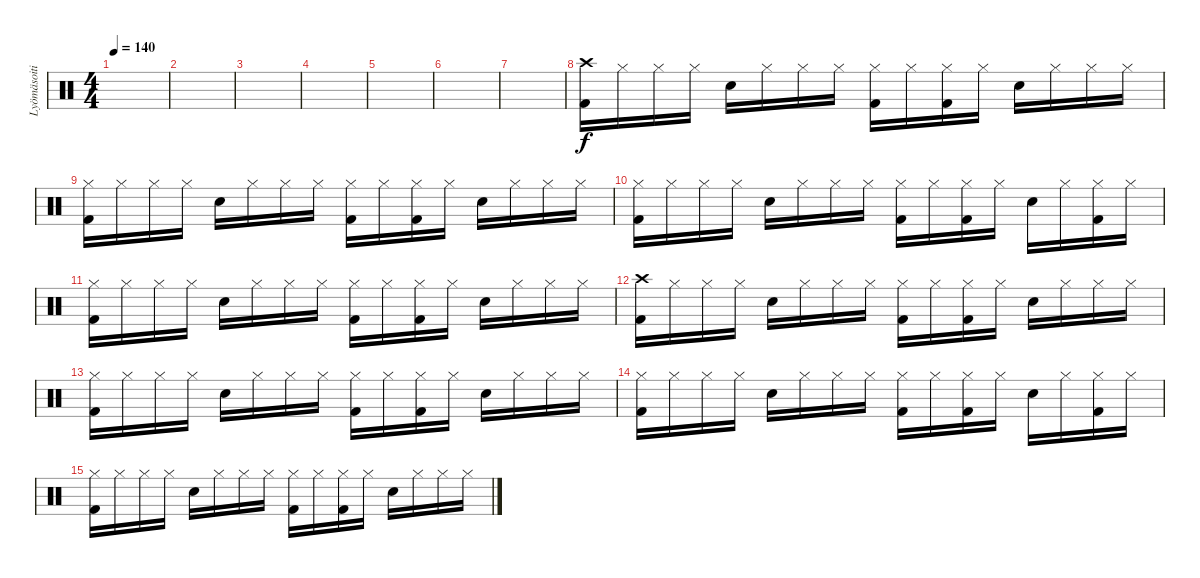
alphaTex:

\track ("Lyömäsoitin" "Lyömäsoiti") {instrument percussion}
\staff {score}
\articulation defaults
\ts (4 4)
\tempo 140
\clef neutral
\ks c
|
|
|
|
|
|
|
("Crash high (hit)" "Kick (hit) 2").16 "Hi-Hat (closed)".16 "Hi-Hat (closed)".16 "Hi-Hat (closed)".16 "Snare (hit) 2".16 "Hi-Hat (closed)".16 "Hi-Hat (closed)".16 "Hi-Hat (closed)".16 ("Hi-Hat (closed)" "Kick (hit) 2").16 "Hi-Hat (closed)".16 ("Hi-Hat (closed)" "Kick (hit) 2").16 "Hi-Hat (closed)".16 "Snare (hit) 2".16 "Hi-Hat (closed)".16 "Hi-Hat (closed)".16 "Hi-Hat (closed)".16 |
("Hi-Hat (closed)" "Kick (hit) 2").16 "Hi-Hat (closed)".16 "Hi-Hat (closed)".16 "Hi-Hat (closed)".16 "Snare (hit) 2".16 "Hi-Hat (closed)".16 "Hi-Hat (closed)".16 "Hi-Hat (closed)".16 ("Hi-Hat (closed)" "Kick (hit) 2").16 "Hi-Hat (closed)".16 ("Hi-Hat (closed)" "Kick (hit) 2").16 "Hi-Hat (closed)".16 "Snare (hit) 2".16 "Hi-Hat (closed)".16 "Hi-Hat (closed)".16 "Hi-Hat (closed)".16 |
("Hi-Hat (closed)" "Kick (hit) 2").16 "Hi-Hat (closed)".16 "Hi-Hat (closed)".16 "Hi-Hat (closed)".16 "Snare (hit) 2".16 "Hi-Hat (closed)".16 "Hi-Hat (closed)".16 "Hi-Hat (closed)".16 ("Hi-Hat (closed)" "Kick (hit) 2").16 "Hi-Hat (closed)".16 ("Hi-Hat (closed)" "Kick (hit) 2").16 "Hi-Hat (closed)".16 "Snare (hit) 2".16 "Hi-Hat (closed)".16 ("Hi-Hat (closed)" "Kick (hit) 2").16 "Hi-Hat (closed)".16 |
("Hi-Hat (closed)" "Kick (hit) 2").16 "Hi-Hat (closed)".16 "Hi-Hat (closed)".16 "Hi-Hat (closed)".16 "Snare (hit) 2".16 "Hi-Hat (closed)".16 "Hi-Hat (closed)".16 "Hi-Hat (closed)".16 ("Hi-Hat (closed)" "Kick (hit) 2").16 "Hi-Hat (closed)".16 ("Hi-Hat (closed)" "Kick (hit) 2").16 "Hi-Hat (closed)".16 "Snare (hit) 2".16 "Hi-Hat (closed)".16 "Hi-Hat (closed)".16 "Hi-Hat (closed)".16 |
("Crash high (hit)" "Kick (hit) 2").16 "Hi-Hat (closed)".16 "Hi-Hat (closed)".16 "Hi-Hat (closed)".16 "Snare (hit) 2".16 "Hi-Hat (closed)".16 "Hi-Hat (closed)".16 "Hi-Hat (closed)".16 ("Hi-Hat (closed)" "Kick (hit) 2").16 "Hi-Hat (closed)".16 ("Hi-Hat (closed)" "Kick (hit) 2").16 "Hi-Hat (closed)".16 "Snare (hit) 2".16 "Hi-Hat (closed)".16 "Hi-Hat (closed)".16 "Hi-Hat (closed)".16 |
("Hi-Hat (closed)" "Kick (hit) 2").16 "Hi-Hat (closed)".16 "Hi-Hat (closed)".16 "Hi-Hat (closed)".16 "Snare (hit) 2".16 "Hi-Hat (closed)".16 "Hi-Hat (closed)".16 "Hi-Hat (closed)".16 ("Hi-Hat (closed)" "Kick (hit) 2").16 "Hi-Hat (closed)".16 ("Hi-Hat (closed)" "Kick (hit) 2").16 "Hi-Hat (closed)".16 "Snare (hit) 2".16 "Hi-Hat (closed)".16 "Hi-Hat (closed)".16 "Hi-Hat (closed)".16 |
("Hi-Hat (closed)" "Kick (hit) 2").16 "Hi-Hat (closed)".16 "Hi-Hat (closed)".16 "Hi-Hat (closed)".16 "Snare (hit) 2".16 "Hi-Hat (closed)".16 "Hi-Hat (closed)".16 "Hi-Hat (closed)".16 ("Hi-Hat (closed)" "Kick (hit) 2").16 "Hi-Hat (closed)".16 ("Hi-Hat (closed)" "Kick (hit) 2").16 "Hi-Hat (closed)".16 "Snare (hit) 2".16 "Hi-Hat (closed)".16 ("Hi-Hat (closed)" "Kick (hit) 2").16 "Hi-Hat (closed)".16 |
("Hi-Hat (closed)" "Kick (hit) 2").16 "Hi-Hat (closed)".16 "Hi-Hat (closed)".16 "Hi-Hat (closed)".16 "Snare (hit) 2".16 "Hi-Hat (closed)".16 "Hi-Hat (closed)".16 "Hi-Hat (closed)".16 ("Hi-Hat (closed)" "Kick (hit) 2").16 "Hi-Hat (closed)".16 ("Hi-Hat (closed)" "Kick (hit) 2").16 "Hi-Hat (closed)".16 "Snare (hit) 2".16 "Hi-Hat (closed)".16 "Hi-Hat (closed)".16 "Hi-Hat (closed)".16
